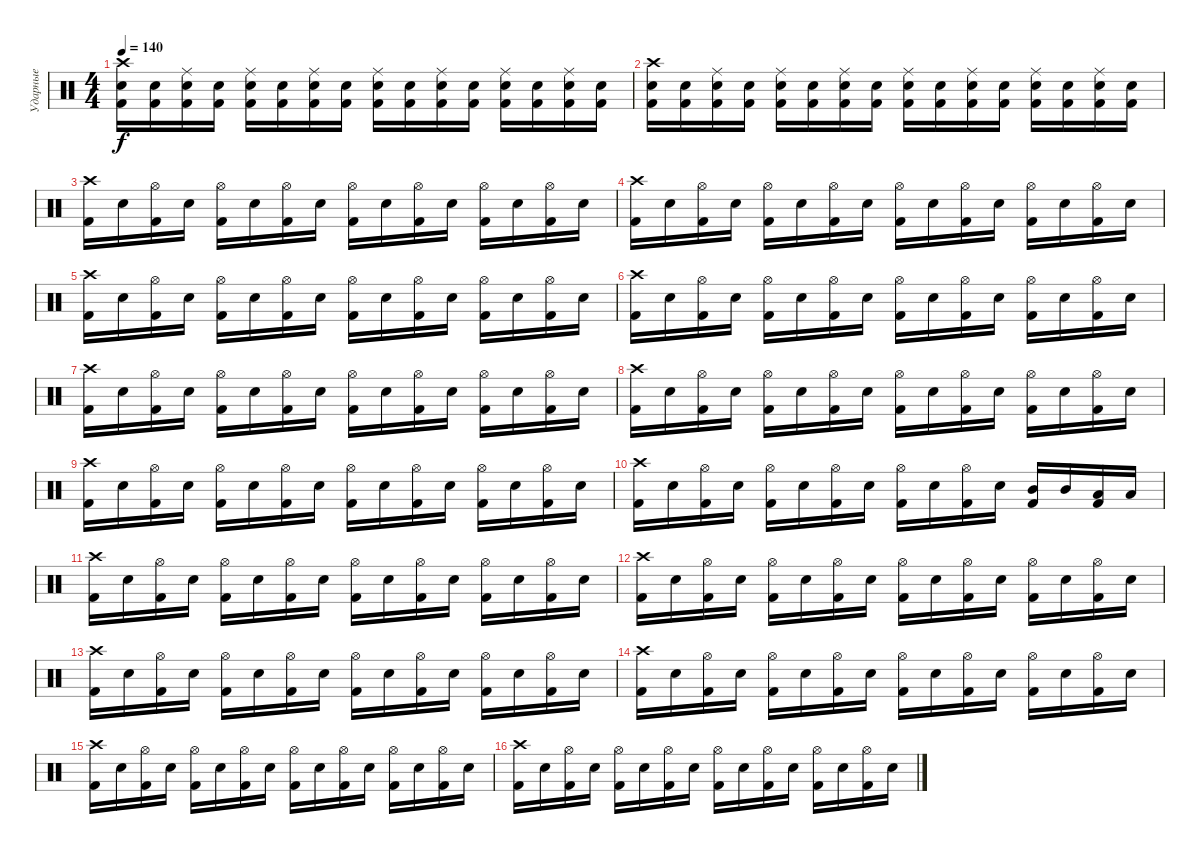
\track ("Ударные" "Ударные") {mute instrument percussion}
\staff {score}
\articulation defaults
\ts (4 4)
\tempo 140
\clef neutral
\ks c
("Crash high (hit)" "Electric Snare (hit)" "Kick (hit) 2").16{dy f} ("Electric Snare (hit)" "Kick (hit) 2").16 ("Ride (middle)" "Electric Snare (hit)" "Kick (hit) 2").16 ("Electric Snare (hit)" "Kick (hit) 2").16 ("Ride (middle)" "Electric Snare (hit)" "Kick (hit) 2").16 ("Electric Snare (hit)" "Kick (hit) 2").16 ("Ride (middle)" "Electric Snare (hit)" "Kick (hit) 2").16 ("Electric Snare (hit)" "Kick (hit) 2").16 ("Ride (middle)" "Electric Snare (hit)" "Kick (hit) 2").16 ("Electric Snare (hit)" "Kick (hit) 2").16 ("Ride (middle)" "Electric Snare (hit)" "Kick (hit) 2").16 ("Electric Snare (hit)" "Kick (hit) 2").16 ("Ride (middle)" "Electric Snare (hit)" "Kick (hit) 2").16 ("Electric Snare (hit)" "Kick (hit) 2").16 ("Ride (middle)" "Electric Snare (hit)" "Kick (hit) 2").16 ("Electric Snare (hit)" "Kick (hit) 2").16 |
("Crash high (hit)" "Electric Snare (hit)" "Kick (hit) 2").16 ("Electric Snare (hit)" "Kick (hit) 2").16 ("Ride (middle)" "Electric Snare (hit)" "Kick (hit) 2").16 ("Electric Snare (hit)" "Kick (hit) 2").16 ("Ride (middle)" "Electric Snare (hit)" "Kick (hit) 2").16 ("Electric Snare (hit)" "Kick (hit) 2").16 ("Ride (middle)" "Electric Snare (hit)" "Kick (hit) 2").16 ("Electric Snare (hit)" "Kick (hit) 2").16 ("Ride (middle)" "Electric Snare (hit)" "Kick (hit) 2").16 ("Electric Snare (hit)" "Kick (hit) 2").16 ("Ride (middle)" "Electric Snare (hit)" "Kick (hit) 2").16 ("Electric Snare (hit)" "Kick (hit) 2").16 ("Ride (middle)" "Electric Snare (hit)" "Kick (hit) 2").16 ("Electric Snare (hit)" "Kick (hit) 2").16 ("Ride (middle)" "Electric Snare (hit)" "Kick (hit) 2").16 ("Electric Snare (hit)" "Kick (hit) 2").16 |
("Crash high (hit)" "Kick (hit) 2").16 "Electric Snare (hit)".16 ("Hi-Hat (open)" "Kick (hit) 2").16 "Electric Snare (hit)".16 ("Hi-Hat (open)" "Kick (hit) 2").16 "Electric Snare (hit)".16 ("Hi-Hat (open)" "Kick (hit) 2").16 "Electric Snare (hit)".16 ("Hi-Hat (open)" "Kick (hit) 2").16 "Electric Snare (hit)".16 ("Hi-Hat (open)" "Kick (hit) 2").16 "Electric Snare (hit)".16 ("Hi-Hat (open)" "Kick (hit) 2").16 "Electric Snare (hit)".16 ("Hi-Hat (open)" "Kick (hit) 2").16 "Electric Snare (hit)".16 |
("Crash high (hit)" "Kick (hit) 2").16 "Electric Snare (hit)".16 ("Hi-Hat (open)" "Kick (hit) 2").16 "Electric Snare (hit)".16 ("Hi-Hat (open)" "Kick (hit) 2").16 "Electric Snare (hit)".16 ("Hi-Hat (open)" "Kick (hit) 2").16 "Electric Snare (hit)".16 ("Hi-Hat (open)" "Kick (hit) 2").16 "Electric Snare (hit)".16 ("Hi-Hat (open)" "Kick (hit) 2").16 "Electric Snare (hit)".16 ("Hi-Hat (open)" "Kick (hit) 2").16 "Electric Snare (hit)".16 ("Hi-Hat (open)" "Kick (hit) 2").16 "Electric Snare (hit)".16 |
("Crash high (hit)" "Kick (hit) 2").16 "Electric Snare (hit)".16 ("Hi-Hat (open)" "Kick (hit) 2").16 "Electric Snare (hit)".16 ("Hi-Hat (open)" "Kick (hit) 2").16 "Electric Snare (hit)".16 ("Hi-Hat (open)" "Kick (hit) 2").16 "Electric Snare (hit)".16 ("Hi-Hat (open)" "Kick (hit) 2").16 "Electric Snare (hit)".16 ("Hi-Hat (open)" "Kick (hit) 2").16 "Electric Snare (hit)".16 ("Hi-Hat (open)" "Kick (hit) 2").16 "Electric Snare (hit)".16 ("Hi-Hat (open)" "Kick (hit) 2").16 "Electric Snare (hit)".16 |
("Crash high (hit)" "Kick (hit) 2").16 "Electric Snare (hit)".16 ("Hi-Hat (open)" "Kick (hit) 2").16 "Electric Snare (hit)".16 ("Hi-Hat (open)" "Kick (hit) 2").16 "Electric Snare (hit)".16 ("Hi-Hat (open)" "Kick (hit) 2").16 "Electric Snare (hit)".16 ("Hi-Hat (open)" "Kick (hit) 2").16 "Electric Snare (hit)".16 ("Hi-Hat (open)" "Kick (hit) 2").16 "Electric Snare (hit)".16 ("Hi-Hat (open)" "Kick (hit) 2").16 "Electric Snare (hit)".16 ("Hi-Hat (open)" "Kick (hit) 2").16 "Electric Snare (hit)".16 |
("Crash high (hit)" "Kick (hit) 2").16 "Electric Snare (hit)".16 ("Hi-Hat (open)" "Kick (hit) 2").16 "Electric Snare (hit)".16 ("Hi-Hat (open)" "Kick (hit) 2").16 "Electric Snare (hit)".16 ("Hi-Hat (open)" "Kick (hit) 2").16 "Electric Snare (hit)".16 ("Hi-Hat (open)" "Kick (hit) 2").16 "Electric Snare (hit)".16 ("Hi-Hat (open)" "Kick (hit) 2").16 "Electric Snare (hit)".16 ("Hi-Hat (open)" "Kick (hit) 2").16 "Electric Snare (hit)".16 ("Hi-Hat (open)" "Kick (hit) 2").16 "Electric Snare (hit)".16 |
("Crash high (hit)" "Kick (hit) 2").16 "Electric Snare (hit)".16 ("Hi-Hat (open)" "Kick (hit) 2").16 "Electric Snare (hit)".16 ("Hi-Hat (open)" "Kick (hit) 2").16 "Electric Snare (hit)".16 ("Hi-Hat (open)" "Kick (hit) 2").16 "Electric Snare (hit)".16 ("Hi-Hat (open)" "Kick (hit) 2").16 "Electric Snare (hit)".16 ("Hi-Hat (open)" "Kick (hit) 2").16 "Electric Snare (hit)".16 ("Hi-Hat (open)" "Kick (hit) 2").16 "Electric Snare (hit)".16 ("Hi-Hat (open)" "Kick (hit) 2").16 "Electric Snare (hit)".16 |
("Crash high (hit)" "Kick (hit) 2").16 "Electric Snare (hit)".16 ("Hi-Hat (open)" "Kick (hit) 2").16 "Electric Snare (hit)".16 ("Hi-Hat (open)" "Kick (hit) 2").16 "Electric Snare (hit)".16 ("Hi-Hat (open)" "Kick (hit) 2").16 "Electric Snare (hit)".16 ("Hi-Hat (open)" "Kick (hit) 2").16 "Electric Snare (hit)".16 ("Hi-Hat (open)" "Kick (hit) 2").16 "Electric Snare (hit)".16 ("Hi-Hat (open)" "Kick (hit) 2").16 "Electric Snare (hit)".16 ("Hi-Hat (open)" "Kick (hit) 2").16 "Electric Snare (hit)".16 |
("Crash high (hit)" "Kick (hit) 2").16 "Electric Snare (hit)".16 ("Hi-Hat (open)" "Kick (hit) 2").16 "Electric Snare (hit)".16 ("Hi-Hat (open)" "Kick (hit) 2").16 "Electric Snare (hit)".16 ("Hi-Hat (open)" "Kick (hit) 2").16 "Electric Snare (hit)".16 ("Hi-Hat (open)" "Kick (hit) 2").16 "Electric Snare (hit)".16 ("Hi-Hat (open)" "Kick (hit) 2").16 "Electric Snare (hit)".16 ("Mid Tom (hit)" "Kick (hit) 2").16 "Mid Tom (hit)".16 ("Low Tom (hit)" "Kick (hit) 2").16 "Low Tom (hit)".16 |
("Crash high (hit)" "Kick (hit) 2").16 "Electric Snare (hit)".16 ("Hi-Hat (open)" "Kick (hit) 2").16 "Electric Snare (hit)".16 ("Hi-Hat (open)" "Kick (hit) 2").16 "Electric Snare (hit)".16 ("Hi-Hat (open)" "Kick (hit) 2").16 "Electric Snare (hit)".16 ("Hi-Hat (open)" "Kick (hit) 2").16 "Electric Snare (hit)".16 ("Hi-Hat (open)" "Kick (hit) 2").16 "Electric Snare (hit)".16 ("Hi-Hat (open)" "Kick (hit) 2").16 "Electric Snare (hit)".16 ("Hi-Hat (open)" "Kick (hit) 2").16 "Electric Snare (hit)".16 |
("Crash high (hit)" "Kick (hit) 2").16 "Electric Snare (hit)".16 ("Hi-Hat (open)" "Kick (hit) 2").16 "Electric Snare (hit)".16 ("Hi-Hat (open)" "Kick (hit) 2").16 "Electric Snare (hit)".16 ("Hi-Hat (open)" "Kick (hit) 2").16 "Electric Snare (hit)".16 ("Hi-Hat (open)" "Kick (hit) 2").16 "Electric Snare (hit)".16 ("Hi-Hat (open)" "Kick (hit) 2").16 "Electric Snare (hit)".16 ("Hi-Hat (open)" "Kick (hit) 2").16 "Electric Snare (hit)".16 ("Hi-Hat (open)" "Kick (hit) 2").16 "Electric Snare (hit)".16 |
("Crash high (hit)" "Kick (hit) 2").16 "Electric Snare (hit)".16 ("Hi-Hat (open)" "Kick (hit) 2").16 "Electric Snare (hit)".16 ("Hi-Hat (open)" "Kick (hit) 2").16 "Electric Snare (hit)".16 ("Hi-Hat (open)" "Kick (hit) 2").16 "Electric Snare (hit)".16 ("Hi-Hat (open)" "Kick (hit) 2").16 "Electric Snare (hit)".16 ("Hi-Hat (open)" "Kick (hit) 2").16 "Electric Snare (hit)".16 ("Hi-Hat (open)" "Kick (hit) 2").16 "Electric Snare (hit)".16 ("Hi-Hat (open)" "Kick (hit) 2").16 "Electric Snare (hit)".16 |
("Crash high (hit)" "Kick (hit) 2").16 "Electric Snare (hit)".16 ("Hi-Hat (open)" "Kick (hit) 2").16 "Electric Snare (hit)".16 ("Hi-Hat (open)" "Kick (hit) 2").16 "Electric Snare (hit)".16 ("Hi-Hat (open)" "Kick (hit) 2").16 "Electric Snare (hit)".16 ("Hi-Hat (open)" "Kick (hit) 2").16 "Electric Snare (hit)".16 ("Hi-Hat (open)" "Kick (hit) 2").16 "Electric Snare (hit)".16 ("Hi-Hat (open)" "Kick (hit) 2").16 "Electric Snare (hit)".16 ("Hi-Hat (open)" "Kick (hit) 2").16 "Electric Snare (hit)".16 |
("Crash high (hit)" "Kick (hit) 2").16 "Electric Snare (hit)".16 ("Hi-Hat (open)" "Kick (hit) 2").16 "Electric Snare (hit)".16 ("Hi-Hat (open)" "Kick (hit) 2").16 "Electric Snare (hit)".16 ("Hi-Hat (open)" "Kick (hit) 2").16 "Electric Snare (hit)".16 ("Hi-Hat (open)" "Kick (hit) 2").16 "Electric Snare (hit)".16 ("Hi-Hat (open)" "Kick (hit) 2").16 "Electric Snare (hit)".16 ("Hi-Hat (open)" "Kick (hit) 2").16 "Electric Snare (hit)".16 ("Hi-Hat (open)" "Kick (hit) 2").16 "Electric Snare (hit)".16 |
("Crash high (hit)" "Kick (hit) 2").16 "Electric Snare (hit)".16 ("Hi-Hat (open)" "Kick (hit) 2").16 "Electric Snare (hit)".16 ("Hi-Hat (open)" "Kick (hit) 2").16 "Electric Snare (hit)".16 ("Hi-Hat (open)" "Kick (hit) 2").16 "Electric Snare (hit)".16 ("Hi-Hat (open)" "Kick (hit) 2").16 "Electric Snare (hit)".16 ("Hi-Hat (open)" "Kick (hit) 2").16 "Electric Snare (hit)".16 ("Hi-Hat (open)" "Kick (hit) 2").16 "Electric Snare (hit)".16 ("Hi-Hat (open)" "Kick (hit) 2").16 "Electric Snare (hit)".16
